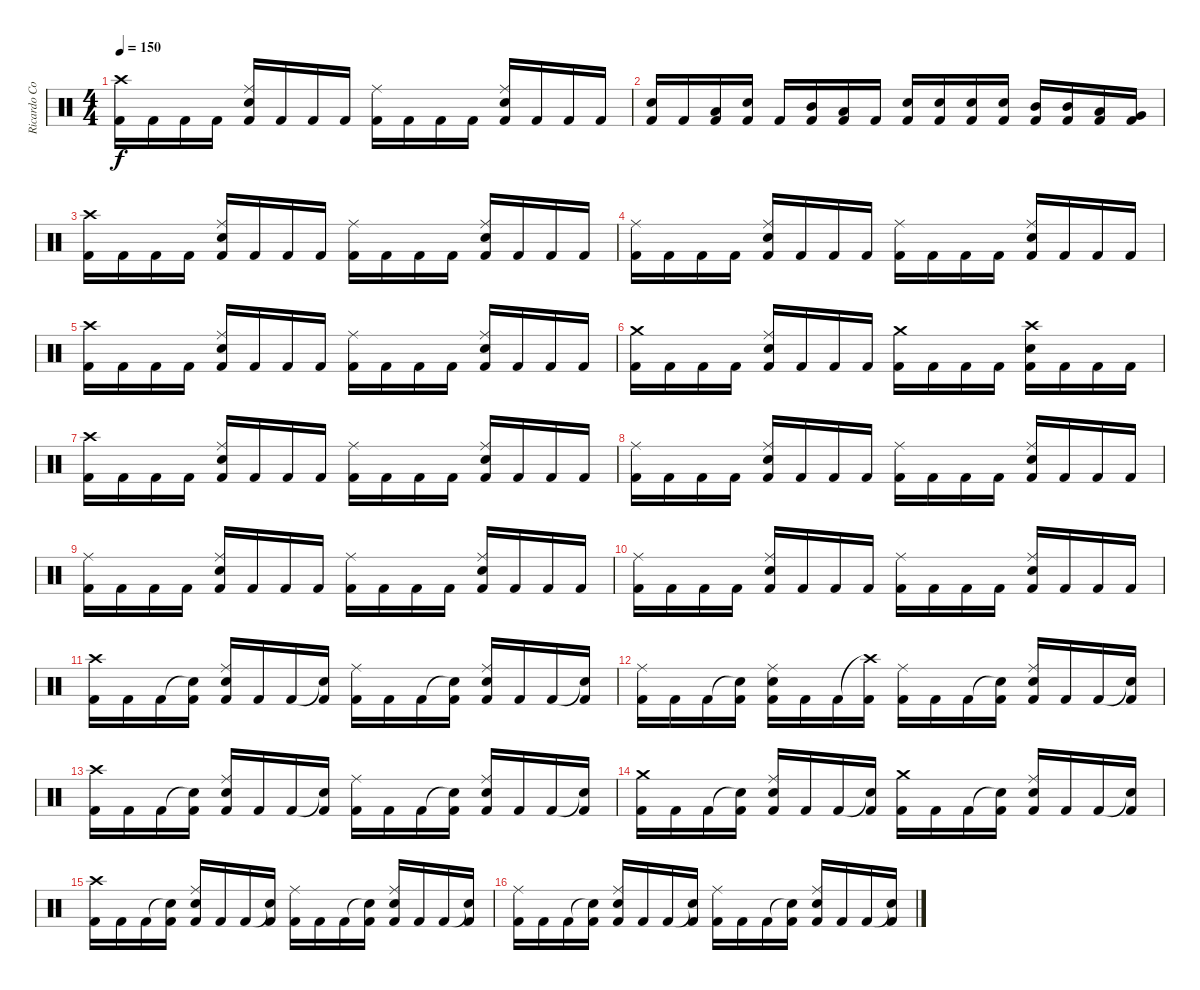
\track ("Ricardo Confessori" "Ricardo Co") {instrument percussion}
\staff {score}
\articulation defaults
\ts (4 4)
\tempo 150
\clef neutral
\ks c
("Crash high (hit)" "Kick (hit) 2").16{dy f} "Kick (hit) 2".16 "Kick (hit) 2".16 "Kick (hit) 2".16 ("Ride (middle)" "Electric Snare (hit)" "Kick (hit) 2").16 "Kick (hit) 2".16 "Kick (hit) 2".16 "Kick (hit) 2".16 ("Ride (middle)" "Kick (hit) 2").16 "Kick (hit) 2".16 "Kick (hit) 2".16 "Kick (hit) 2".16 ("Ride (middle)" "Electric Snare (hit)" "Kick (hit) 2").16 "Kick (hit) 2".16 "Kick (hit) 2".16 "Kick (hit) 2".16 |
("Electric Snare (hit)" "Kick (hit) 2").16 "Kick (hit) 2".16 ("Low Tom (hit)" "Kick (hit) 2").16 ("Electric Snare (hit)" "Kick (hit) 2").16 "Kick (hit) 2".16 ("Mid Tom (hit)" "Kick (hit) 2").16 ("Low Tom (hit)" "Kick (hit) 2").16 "Kick (hit) 2".16 ("Electric Snare (hit)" "Kick (hit) 2").16 ("Electric Snare (hit)" "Kick (hit) 2").16 ("Electric Snare (hit)" "Kick (hit) 2").16 ("Electric Snare (hit)" "Kick (hit) 2").16 ("Mid Tom (hit)" "Kick (hit) 2").16 ("Mid Tom (hit)" "Kick (hit) 2").16 ("Low Tom (hit)" "Kick (hit) 2").16 ("Very Low Tom (hit)" "Kick (hit) 2").16 |
("Crash high (hit)" "Kick (hit) 2").16 "Kick (hit) 2".16 "Kick (hit) 2".16 "Kick (hit) 2".16 ("Ride (middle)" "Electric Snare (hit)" "Kick (hit) 2").16 "Kick (hit) 2".16 "Kick (hit) 2".16 "Kick (hit) 2".16 ("Ride (middle)" "Kick (hit) 2").16 "Kick (hit) 2".16 "Kick (hit) 2".16 "Kick (hit) 2".16 ("Ride (middle)" "Electric Snare (hit)" "Kick (hit) 2").16 "Kick (hit) 2".16 "Kick (hit) 2".16 "Kick (hit) 2".16 |
("Ride (middle)" "Kick (hit) 2").16 "Kick (hit) 2".16 "Kick (hit) 2".16 "Kick (hit) 2".16 ("Ride (middle)" "Electric Snare (hit)" "Kick (hit) 2").16 "Kick (hit) 2".16 "Kick (hit) 2".16 "Kick (hit) 2".16 ("Ride (middle)" "Kick (hit) 2").16 "Kick (hit) 2".16 "Kick (hit) 2".16 "Kick (hit) 2".16 ("Ride (middle)" "Electric Snare (hit)" "Kick (hit) 2").16 "Kick (hit) 2".16 "Kick (hit) 2".16 "Kick (hit) 2".16 |
("Crash high (hit)" "Kick (hit) 2").16 "Kick (hit) 2".16 "Kick (hit) 2".16 "Kick (hit) 2".16 ("Ride (middle)" "Electric Snare (hit)" "Kick (hit) 2").16 "Kick (hit) 2".16 "Kick (hit) 2".16 "Kick (hit) 2".16 ("Ride (middle)" "Kick (hit) 2").16 "Kick (hit) 2".16 "Kick (hit) 2".16 "Kick (hit) 2".16 ("Ride (middle)" "Electric Snare (hit)" "Kick (hit) 2").16 "Kick (hit) 2".16 "Kick (hit) 2".16 "Kick (hit) 2".16 |
("Crash medium (hit)" "Kick (hit) 2").16 "Kick (hit) 2".16 "Kick (hit) 2".16 "Kick (hit) 2".16 ("Ride (middle)" "Electric Snare (hit)" "Kick (hit) 2").16 "Kick (hit) 2".16 "Kick (hit) 2".16 "Kick (hit) 2".16 ("Crash medium (hit)" "Kick (hit) 2").16 "Kick (hit) 2".16 "Kick (hit) 2".16 "Kick (hit) 2".16 ("Crash high (hit)" "Electric Snare (hit)" "Kick (hit) 2").16 "Kick (hit) 2".16 "Kick (hit) 2".16 "Kick (hit) 2".16 |
("Crash high (hit)" "Kick (hit) 2").16 "Kick (hit) 2".16 "Kick (hit) 2".16 "Kick (hit) 2".16 ("Ride (middle)" "Electric Snare (hit)" "Kick (hit) 2").16 "Kick (hit) 2".16 "Kick (hit) 2".16 "Kick (hit) 2".16 ("Ride (middle)" "Kick (hit) 2").16 "Kick (hit) 2".16 "Kick (hit) 2".16 "Kick (hit) 2".16 ("Ride (middle)" "Electric Snare (hit)" "Kick (hit) 2").16 "Kick (hit) 2".16 "Kick (hit) 2".16 "Kick (hit) 2".16 |
("Ride (middle)" "Kick (hit) 2").16 "Kick (hit) 2".16 "Kick (hit) 2".16 "Kick (hit) 2".16 ("Ride (middle)" "Electric Snare (hit)" "Kick (hit) 2").16 "Kick (hit) 2".16 "Kick (hit) 2".16 "Kick (hit) 2".16 ("Ride (middle)" "Kick (hit) 2").16 "Kick (hit) 2".16 "Kick (hit) 2".16 "Kick (hit) 2".16 ("Ride (middle)" "Electric Snare (hit)" "Kick (hit) 2").16 "Kick (hit) 2".16 "Kick (hit) 2".16 "Kick (hit) 2".16 |
("Ride (middle)" "Kick (hit) 2").16 "Kick (hit) 2".16 "Kick (hit) 2".16 "Kick (hit) 2".16 ("Ride (middle)" "Electric Snare (hit)" "Kick (hit) 2").16 "Kick (hit) 2".16 "Kick (hit) 2".16 "Kick (hit) 2".16 ("Ride (middle)" "Kick (hit) 2").16 "Kick (hit) 2".16 "Kick (hit) 2".16 "Kick (hit) 2".16 ("Ride (middle)" "Electric Snare (hit)" "Kick (hit) 2").16 "Kick (hit) 2".16 "Kick (hit) 2".16 "Kick (hit) 2".16 |
("Ride (middle)" "Kick (hit) 2").16 "Kick (hit) 2".16 "Kick (hit) 2".16 "Kick (hit) 2".16 ("Ride (middle)" "Electric Snare (hit)" "Kick (hit) 2").16 "Kick (hit) 2".16 "Kick (hit) 2".16 "Kick (hit) 2".16 ("Ride (middle)" "Kick (hit) 2").16 "Kick (hit) 2".16 "Kick (hit) 2".16 "Kick (hit) 2".16 ("Ride (middle)" "Electric Snare (hit)" "Kick (hit) 2").16 "Kick (hit) 2".16 "Kick (hit) 2".16 "Kick (hit) 2".16 |
("Crash high (hit)" "Kick (hit) 2").16 "Kick (hit) 2".16 "Kick (hit) 2".16 ("Snare (hit)"{t} "Kick (hit) 2").16 ("Ride (middle)" "Electric Snare (hit)" "Kick (hit) 2").16 "Kick (hit) 2".16 "Kick (hit) 2".16 ("Snare (hit)"{t} "Kick (hit) 2").16 ("Ride (middle)" "Kick (hit) 2").16 "Kick (hit) 2".16 "Kick (hit) 2".16 ("Snare (hit)"{t} "Kick (hit) 2").16 ("Ride (middle)" "Electric Snare (hit)" "Kick (hit) 2").16 "Kick (hit) 2".16 "Kick (hit) 2".16 ("Snare (hit)"{t} "Kick (hit) 2").16 |
("Ride (middle)" "Kick (hit) 2").16 "Kick (hit) 2".16 "Kick (hit) 2".16 ("Snare (hit)"{t} "Kick (hit) 2").16 ("Ride (middle)" "Electric Snare (hit)" "Kick (hit) 2").16 "Kick (hit) 2".16 "Kick (hit) 2".16 ("Crash high (hit)"{t} "Kick (hit) 2").16 ("Ride (middle)" "Kick (hit) 2").16 "Kick (hit) 2".16 "Kick (hit) 2".16 ("Snare (hit)"{t} "Kick (hit) 2").16 ("Ride (middle)" "Electric Snare (hit)" "Kick (hit) 2").16 "Kick (hit) 2".16 "Kick (hit) 2".16 ("Snare (hit)"{t} "Kick (hit) 2").16 |
("Crash high (hit)" "Kick (hit) 2").16 "Kick (hit) 2".16 "Kick (hit) 2".16 ("Snare (hit)"{t} "Kick (hit) 2").16 ("Ride (middle)" "Electric Snare (hit)" "Kick (hit) 2").16 "Kick (hit) 2".16 "Kick (hit) 2".16 ("Snare (hit)"{t} "Kick (hit) 2").16 ("Ride (middle)" "Kick (hit) 2").16 "Kick (hit) 2".16 "Kick (hit) 2".16 ("Snare (hit)"{t} "Kick (hit) 2").16 ("Ride (middle)" "Electric Snare (hit)" "Kick (hit) 2").16 "Kick (hit) 2".16 "Kick (hit) 2".16 ("Snare (hit)"{t} "Kick (hit) 2").16 |
("Crash medium (hit)" "Kick (hit) 2").16 "Kick (hit) 2".16 "Kick (hit) 2".16 ("Snare (hit)"{t} "Kick (hit) 2").16 ("Ride (middle)" "Electric Snare (hit)" "Kick (hit) 2").16 "Kick (hit) 2".16 "Kick (hit) 2".16 ("Snare (hit)"{t} "Kick (hit) 2").16 ("Crash medium (hit)" "Kick (hit) 2").16 "Kick (hit) 2".16 "Kick (hit) 2".16 ("Snare (hit)"{t} "Kick (hit) 2").16 ("Ride (middle)" "Electric Snare (hit)" "Kick (hit) 2").16 "Kick (hit) 2".16 "Kick (hit) 2".16 ("Snare (hit)"{t} "Kick (hit) 2").16 |
("Crash high (hit)" "Kick (hit) 2").16 "Kick (hit) 2".16 "Kick (hit) 2".16 ("Snare (hit)"{t} "Kick (hit) 2").16 ("Ride (middle)" "Electric Snare (hit)" "Kick (hit) 2").16 "Kick (hit) 2".16 "Kick (hit) 2".16 ("Snare (hit)"{t} "Kick (hit) 2").16 ("Ride (middle)" "Kick (hit) 2").16 "Kick (hit) 2".16 "Kick (hit) 2".16 ("Snare (hit)"{t} "Kick (hit) 2").16 ("Ride (middle)" "Electric Snare (hit)" "Kick (hit) 2").16 "Kick (hit) 2".16 "Kick (hit) 2".16 ("Snare (hit)"{t} "Kick (hit) 2").16 |
("Ride (middle)" "Kick (hit) 2").16 "Kick (hit) 2".16 "Kick (hit) 2".16 ("Snare (hit)"{t} "Kick (hit) 2").16 ("Ride (middle)" "Electric Snare (hit)" "Kick (hit) 2").16 "Kick (hit) 2".16 "Kick (hit) 2".16 ("Snare (hit)"{t} "Kick (hit) 2").16 ("Ride (middle)" "Kick (hit) 2").16 "Kick (hit) 2".16 "Kick (hit) 2".16 ("Snare (hit)"{t} "Kick (hit) 2").16 ("Ride (middle)" "Electric Snare (hit)" "Kick (hit) 2").16 "Kick (hit) 2".16 "Kick (hit) 2".16 ("Snare (hit)"{t} "Kick (hit) 2").16
